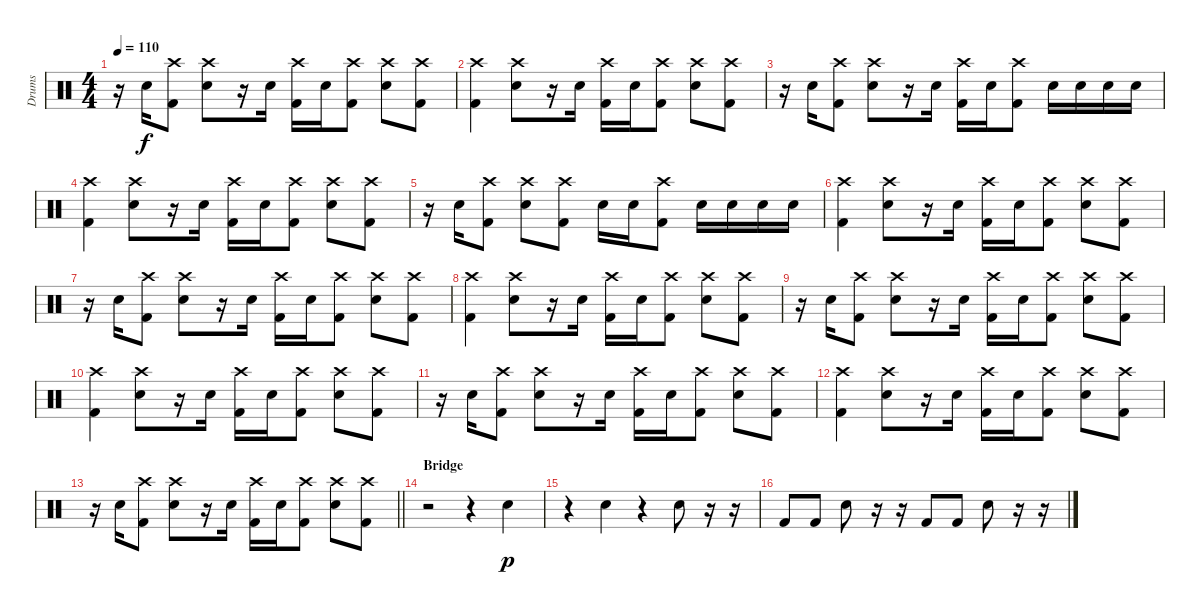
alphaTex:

\track ("Drums" "Drums") {instrument percussion}
\staff {score}
\articulation defaults
\ts (4 4)
\tempo 110
\clef neutral
\ks c
r.16{dy f} "Electric Snare (hit)".16 ("Crash high (hit)" "Kick (hit) 2").8 ("Crash high (hit)" "Electric Snare (hit)").8 r.16 "Electric Snare (hit)".16 ("Crash high (hit)" "Kick (hit) 2").16 "Electric Snare (hit)".16 ("Crash high (hit)" "Kick (hit) 2").8 ("Crash high (hit)" "Electric Snare (hit)").8 ("Crash high (hit)" "Kick (hit) 2").8 |
("Crash high (hit)" "Kick (hit) 2").4 ("Crash high (hit)" "Electric Snare (hit)").8 r.16 "Electric Snare (hit)".16 ("Crash high (hit)" "Kick (hit) 2").16 "Electric Snare (hit)".16 ("Crash high (hit)" "Kick (hit) 2").8 ("Crash high (hit)" "Electric Snare (hit)").8 ("Crash high (hit)" "Kick (hit) 2").8 |
r.16 "Electric Snare (hit)".16 ("Crash high (hit)" "Kick (hit) 2").8 ("Crash high (hit)" "Electric Snare (hit)").8 r.16 "Electric Snare (hit)".16 ("Crash high (hit)" "Kick (hit) 2").16 "Electric Snare (hit)".16 ("Crash high (hit)" "Kick (hit) 2").8 "Electric Snare (hit)".16 "Electric Snare (hit)".16 "Electric Snare (hit)".16 "Electric Snare (hit)".16 |
("Crash high (hit)" "Kick (hit) 2").4 ("Crash high (hit)" "Electric Snare (hit)").8 r.16 "Electric Snare (hit)".16 ("Crash high (hit)" "Kick (hit) 2").16 "Electric Snare (hit)".16 ("Crash high (hit)" "Kick (hit) 2").8 ("Crash high (hit)" "Electric Snare (hit)").8 ("Crash high (hit)" "Kick (hit) 2").8 |
r.16 "Electric Snare (hit)".16 ("Crash high (hit)" "Kick (hit) 2").8 ("Crash high (hit)" "Electric Snare (hit)").8 ("Crash high (hit)" "Kick (hit) 2").8 "Electric Snare (hit)".16 "Electric Snare (hit)".16 ("Crash high (hit)" "Kick (hit) 2").8 "Electric Snare (hit)".16 "Electric Snare (hit)".16 "Electric Snare (hit)".16 "Electric Snare (hit)".16 |
("Crash high (hit)" "Kick (hit) 2").4 ("Crash high (hit)" "Electric Snare (hit)").8 r.16 "Electric Snare (hit)".16 ("Crash high (hit)" "Kick (hit) 2").16 "Electric Snare (hit)".16 ("Crash high (hit)" "Kick (hit) 2").8 ("Crash high (hit)" "Electric Snare (hit)").8 ("Crash high (hit)" "Kick (hit) 2").8 |
r.16 "Electric Snare (hit)".16 ("Crash high (hit)" "Kick (hit) 2").8 ("Crash high (hit)" "Electric Snare (hit)").8 r.16 "Electric Snare (hit)".16 ("Crash high (hit)" "Kick (hit) 2").16 "Electric Snare (hit)".16 ("Crash high (hit)" "Kick (hit) 2").8 ("Crash high (hit)" "Electric Snare (hit)").8 ("Crash high (hit)" "Kick (hit) 2").8 |
("Crash high (hit)" "Kick (hit) 2").4 ("Crash high (hit)" "Electric Snare (hit)").8 r.16 "Electric Snare (hit)".16 ("Crash high (hit)" "Kick (hit) 2").16 "Electric Snare (hit)".16 ("Crash high (hit)" "Kick (hit) 2").8 ("Crash high (hit)" "Electric Snare (hit)").8 ("Crash high (hit)" "Kick (hit) 2").8 |
r.16 "Electric Snare (hit)".16 ("Crash high (hit)" "Kick (hit) 2").8 ("Crash high (hit)" "Electric Snare (hit)").8 r.16 "Electric Snare (hit)".16 ("Crash high (hit)" "Kick (hit) 2").16 "Electric Snare (hit)".16 ("Crash high (hit)" "Kick (hit) 2").8 ("Crash high (hit)" "Electric Snare (hit)").8 ("Crash high (hit)" "Kick (hit) 2").8 |
("Crash high (hit)" "Kick (hit) 2").4 ("Crash high (hit)" "Electric Snare (hit)").8 r.16 "Electric Snare (hit)".16 ("Crash high (hit)" "Kick (hit) 2").16 "Electric Snare (hit)".16 ("Crash high (hit)" "Kick (hit) 2").8 ("Crash high (hit)" "Electric Snare (hit)").8 ("Crash high (hit)" "Kick (hit) 2").8 |
r.16 "Electric Snare (hit)".16 ("Crash high (hit)" "Kick (hit) 2").8 ("Crash high (hit)" "Electric Snare (hit)").8 r.16 "Electric Snare (hit)".16 ("Crash high (hit)" "Kick (hit) 2").16 "Electric Snare (hit)".16 ("Crash high (hit)" "Kick (hit) 2").8 ("Crash high (hit)" "Electric Snare (hit)").8 ("Crash high (hit)" "Kick (hit) 2").8 |
("Crash high (hit)" "Kick (hit) 2").4 ("Crash high (hit)" "Electric Snare (hit)").8 r.16 "Electric Snare (hit)".16 ("Crash high (hit)" "Kick (hit) 2").16 "Electric Snare (hit)".16 ("Crash high (hit)" "Kick (hit) 2").8 ("Crash high (hit)" "Electric Snare (hit)").8 ("Crash high (hit)" "Kick (hit) 2").8 |
\barLineRight lightlight
r.16 "Electric Snare (hit)".16 ("Crash high (hit)" "Kick (hit) 2").8 ("Crash high (hit)" "Electric Snare (hit)").8 r.16 "Electric Snare (hit)".16 ("Crash high (hit)" "Kick (hit) 2").16 "Electric Snare (hit)".16 ("Crash high (hit)" "Kick (hit) 2").8 ("Crash high (hit)" "Electric Snare (hit)").8 ("Crash high (hit)" "Kick (hit) 2").8 |
\section ("" "Bridge")
r.2 r.4 "Electric Snare (hit)".4{dy p} |
r.4 "Electric Snare (hit)".4 r.4 "Electric Snare (hit)".8 r.16 r.16 |
"Kick (hit) 2".8 "Kick (hit) 2".8 "Electric Snare (hit)".8 r.16 r.16 "Kick (hit) 2".8 "Kick (hit) 2".8 "Electric Snare (hit)".8 r.16 r.16
